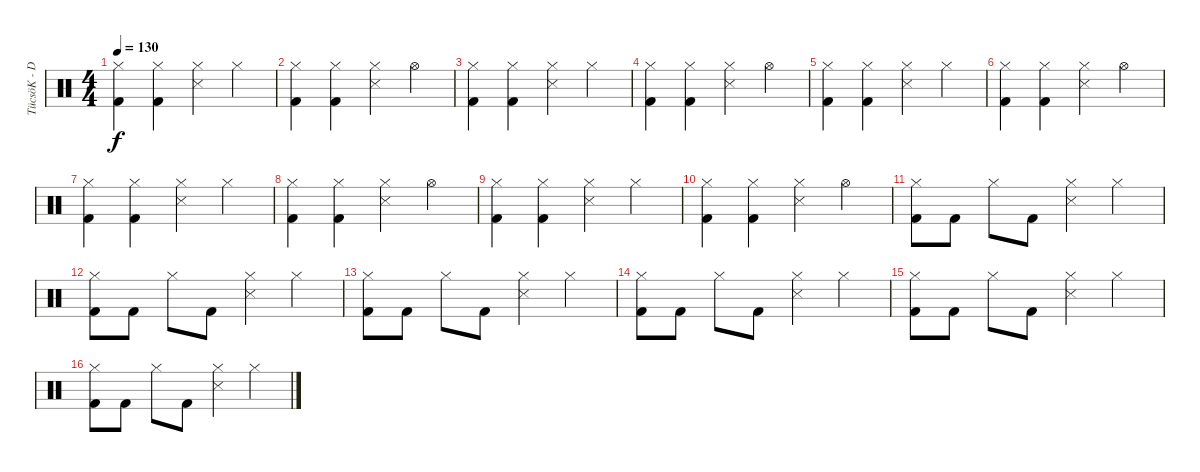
\track ("TücsöK - Dob" "TücsöK - D") {instrument percussion}
\staff {score}
\articulation defaults
\ts (4 4)
\tempo 130
\clef neutral
\ks c
("Hi-Hat (closed)" "Kick (hit) 2").4{dy f} ("Hi-Hat (closed)" "Kick (hit) 2").4 ("Hi-Hat (closed)" "Snare (side stick) 3").4 "Hi-Hat (closed)".4 |
("Hi-Hat (closed)" "Kick (hit) 2").4 ("Hi-Hat (closed)" "Kick (hit) 2").4 ("Hi-Hat (closed)" "Snare (side stick) 3").4 "Hi-Hat (open)".4 |
("Hi-Hat (closed)" "Kick (hit) 2").4 ("Hi-Hat (closed)" "Kick (hit) 2").4 ("Hi-Hat (closed)" "Snare (side stick) 3").4 "Hi-Hat (closed)".4 |
("Hi-Hat (closed)" "Kick (hit) 2").4 ("Hi-Hat (closed)" "Kick (hit) 2").4 ("Hi-Hat (closed)" "Snare (side stick) 3").4 "Hi-Hat (open)".4 |
("Hi-Hat (closed)" "Kick (hit) 2").4 ("Hi-Hat (closed)" "Kick (hit) 2").4 ("Hi-Hat (closed)" "Snare (side stick) 3").4 "Hi-Hat (closed)".4 |
("Hi-Hat (closed)" "Kick (hit) 2").4 ("Hi-Hat (closed)" "Kick (hit) 2").4 ("Hi-Hat (closed)" "Snare (side stick) 3").4 "Hi-Hat (open)".4 |
("Hi-Hat (closed)" "Kick (hit) 2").4 ("Hi-Hat (closed)" "Kick (hit) 2").4 ("Hi-Hat (closed)" "Snare (side stick) 3").4 "Hi-Hat (closed)".4 |
("Hi-Hat (closed)" "Kick (hit) 2").4 ("Hi-Hat (closed)" "Kick (hit) 2").4 ("Hi-Hat (closed)" "Snare (side stick) 3").4 "Hi-Hat (open)".4 |
("Hi-Hat (closed)" "Kick (hit) 2").4 ("Hi-Hat (closed)" "Kick (hit) 2").4 ("Hi-Hat (closed)" "Snare (side stick) 3").4 "Hi-Hat (closed)".4 |
("Hi-Hat (closed)" "Kick (hit) 2").4 ("Hi-Hat (closed)" "Kick (hit) 2").4 ("Hi-Hat (closed)" "Snare (side stick) 3").4 "Hi-Hat (open)".4 |
("Hi-Hat (closed)" "Kick (hit) 2").8 "Kick (hit) 2".8 "Hi-Hat (closed)".8 "Kick (hit) 2".8 ("Hi-Hat (closed)" "Snare (side stick) 3").4 "Hi-Hat (closed)".4 |
("Hi-Hat (closed)" "Kick (hit) 2").8 "Kick (hit) 2".8 "Hi-Hat (closed)".8 "Kick (hit) 2".8 ("Hi-Hat (closed)" "Snare (side stick) 3").4 "Hi-Hat (closed)".4 |
("Hi-Hat (closed)" "Kick (hit) 2").8 "Kick (hit) 2".8 "Hi-Hat (closed)".8 "Kick (hit) 2".8 ("Hi-Hat (closed)" "Snare (side stick) 3").4 "Hi-Hat (closed)".4 |
("Hi-Hat (closed)" "Kick (hit) 2").8 "Kick (hit) 2".8 "Hi-Hat (closed)".8 "Kick (hit) 2".8 ("Hi-Hat (closed)" "Snare (side stick) 3").4 "Hi-Hat (closed)".4 |
("Hi-Hat (closed)" "Kick (hit) 2").8 "Kick (hit) 2".8 "Hi-Hat (closed)".8 "Kick (hit) 2".8 ("Hi-Hat (closed)" "Snare (side stick) 3").4 "Hi-Hat (closed)".4 |
("Hi-Hat (closed)" "Kick (hit) 2").8 "Kick (hit) 2".8 "Hi-Hat (closed)".8 "Kick (hit) 2".8 ("Hi-Hat (closed)" "Snare (side stick) 3").4 "Hi-Hat (closed)".4
